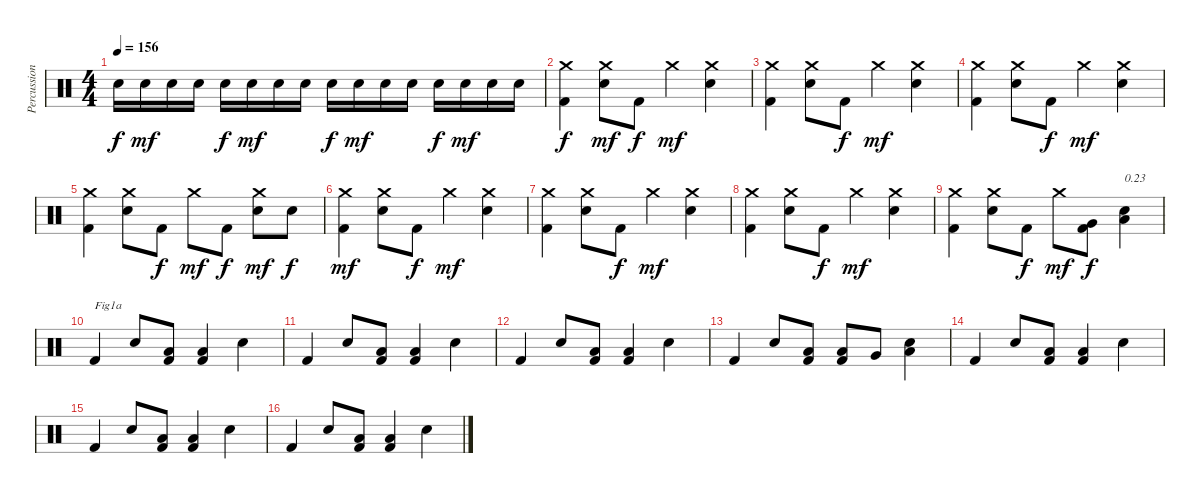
\track ("Percussions" "Percussion") {instrument percussion}
\staff {score}
\articulation defaults
\ts (4 4)
\tempo 156
\clef neutral
\ks c "Electric Snare (hit)".16{dy f} "Electric Snare (hit)".16{dy mf} "Electric Snare (hit)".16 "Electric Snare (hit)".16 "Electric Snare (hit)".16{dy f} "Electric Snare (hit)".16{dy mf} "Electric Snare (hit)".16 "Electric Snare (hit)".16 "Electric Snare (hit)".16{dy f} "Electric Snare (hit)".16{dy mf} "Electric Snare (hit)".16 "Electric Snare (hit)".16 "Electric Snare (hit)".16{dy f} "Electric Snare (hit)".16{dy mf} "Electric Snare (hit)".16 "Electric Snare (hit)".16
|
("Kick (hit) 2" "Crash medium (hit)").4{dy f} ("Electric Snare (hit)" "Crash medium (hit)").8{dy mf} "Kick (hit) 2".8{dy f} "Crash medium (hit)".4{dy mf} ("Electric Snare (hit)" "Crash medium (hit)").4 |
("Kick (hit) 2" "Crash medium (hit)").4 ("Electric Snare (hit)" "Crash medium (hit)").8 "Kick (hit) 2".8{dy f} "Crash medium (hit)".4{dy mf} ("Electric Snare (hit)" "Crash medium (hit)").4 |
("Kick (hit) 2" "Crash medium (hit)").4 ("Electric Snare (hit)" "Crash medium (hit)").8 "Kick (hit) 2".8{dy f} "Crash medium (hit)".4{dy mf} ("Electric Snare (hit)" "Crash medium (hit)").4 |
("Kick (hit) 2" "Crash medium (hit)").4 ("Electric Snare (hit)" "Crash medium (hit)").8 "Kick (hit) 2".8{dy f} "Crash medium (hit)".8{dy mf} "Kick (hit) 2".8{dy f} ("Electric Snare (hit)" "Crash medium (hit)").8{dy mf} "Electric Snare (hit)".8{dy f} |
("Kick (hit) 2" "Crash medium (hit)").4{dy mf} ("Electric Snare (hit)" "Crash medium (hit)").8 "Kick (hit) 2".8{dy f} "Crash medium (hit)".4{dy mf} ("Electric Snare (hit)" "Crash medium (hit)").4 |
("Kick (hit) 2" "Crash medium (hit)").4 ("Electric Snare (hit)" "Crash medium (hit)").8 "Kick (hit) 2".8{dy f} "Crash medium (hit)".4{dy mf} ("Electric Snare (hit)" "Crash medium (hit)").4 |
("Kick (hit) 2" "Crash medium (hit)").4 ("Electric Snare (hit)" "Crash medium (hit)").8 "Kick (hit) 2".8{dy f} "Crash medium (hit)".4{dy mf} ("Electric Snare (hit)" "Crash medium (hit)").4 |
("Kick (hit) 2" "Crash medium (hit)").4 ("Electric Snare (hit)" "Crash medium (hit)").8 "Kick (hit) 2".8{dy f} "Crash medium (hit)".8{dy mf} ("Kick (hit) 2" "Very Low Tom (hit)").8{dy f} ("Electric Snare (hit)" "Low Floor Tom (hit)").4{txt "0.23"} |
"Kick (hit) 2".4{txt "Fig1a"} "Electric Snare (hit)".8 ("Kick (hit) 2" "Low Floor Tom (hit)").8 ("Kick (hit) 2" "Low Floor Tom (hit)").4 "Electric Snare (hit)".4 |
"Kick (hit) 2".4 "Electric Snare (hit)".8 ("Kick (hit) 2" "Low Floor Tom (hit)").8 ("Kick (hit) 2" "Low Floor Tom (hit)").4 "Electric Snare (hit)".4 |
"Kick (hit) 2".4 "Electric Snare (hit)".8 ("Kick (hit) 2" "Low Floor Tom (hit)").8 ("Kick (hit) 2" "Low Floor Tom (hit)").4 "Electric Snare (hit)".4 |
"Kick (hit) 2".4 "Electric Snare (hit)".8 ("Kick (hit) 2" "Low Floor Tom (hit)").8 ("Kick (hit) 2" "Low Floor Tom (hit)").8 "Very Low Tom (hit)".8 ("Electric Snare (hit)" "Low Floor Tom (hit)").4 |
"Kick (hit) 2".4 "Electric Snare (hit)".8 ("Kick (hit) 2" "Low Floor Tom (hit)").8 ("Kick (hit) 2" "Low Floor Tom (hit)").4 "Electric Snare (hit)".4 |
"Kick (hit) 2".4 "Electric Snare (hit)".8 ("Kick (hit) 2" "Low Floor Tom (hit)").8 ("Kick (hit) 2" "Low Floor Tom (hit)").4 "Electric Snare (hit)".4 |
"Kick (hit) 2".4 "Electric Snare (hit)".8 ("Kick (hit) 2" "Low Floor Tom (hit)").8 ("Kick (hit) 2" "Low Floor Tom (hit)").4 "Electric Snare (hit)".4
